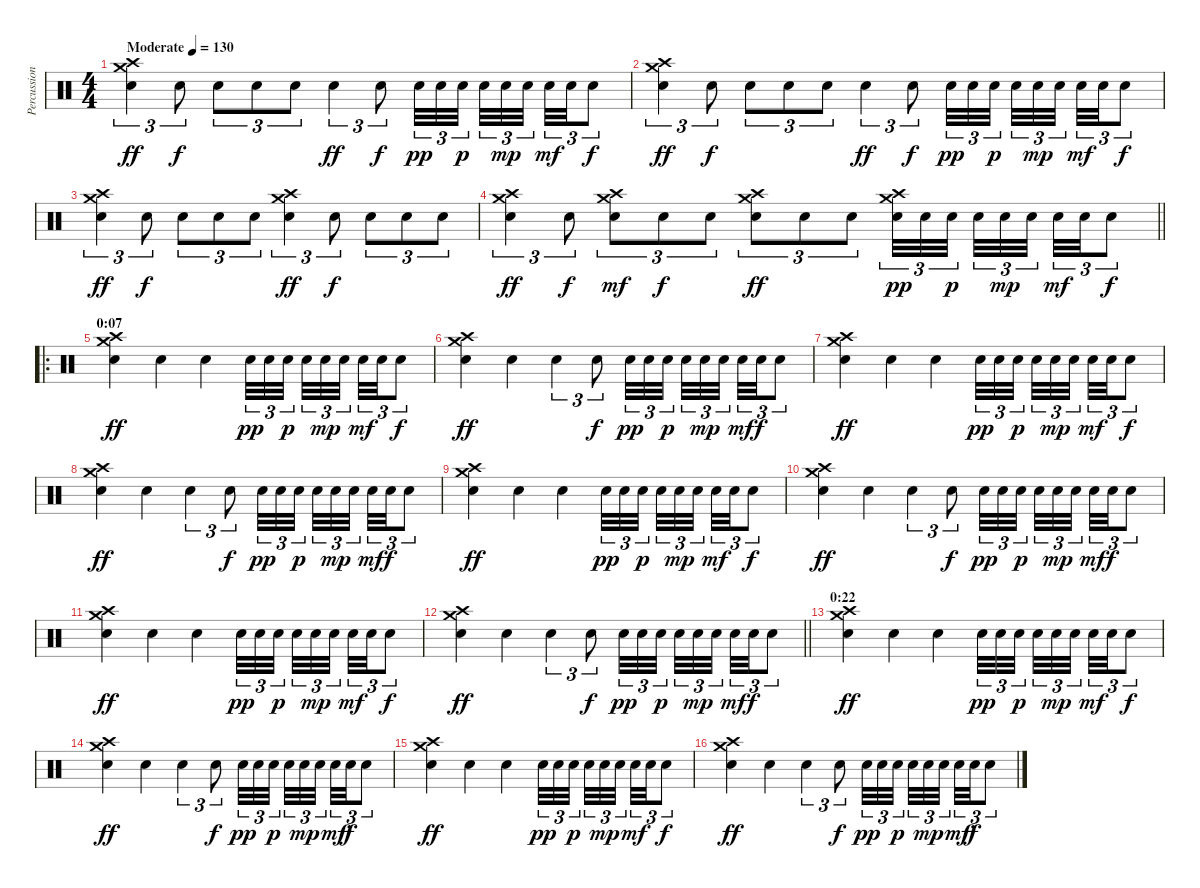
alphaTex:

\track ("Percussion" "Percussion") {instrument percussion}
\staff {score}
\articulation defaults
\ts (4 4)
\tempo (130 "Moderate")
\clef neutral
\ks c
("Crash medium (hit)" "Crash high (hit)" "Electric Snare (hit)").4{tu (3 2) dy ff} "Electric Snare (hit)".8{tu (3 2) dy f} "Electric Snare (hit)".8{tu (3 2)} "Electric Snare (hit)".8{tu (3 2)} "Electric Snare (hit)".8{tu (3 2)} "Electric Snare (hit)".4{tu (3 2) dy ff} "Electric Snare (hit)".8{tu (3 2) dy f} "Electric Snare (hit)".32{tu (3 2) dy pp} "Electric Snare (hit)".32{tu (3 2)} "Electric Snare (hit)".32{tu (3 2) dy p beam splitsecondary} "Electric Snare (hit)".32{tu (3 2)} "Electric Snare (hit)".32{tu (3 2) dy mp} "Electric Snare (hit)".32{tu (3 2) beam splitsecondary} "Electric Snare (hit)".32{tu (3 2) dy mf} "Electric Snare (hit)".32{tu (3 2)} "Electric Snare (hit)".8{tu (3 2) dy f} |
("Crash medium (hit)" "Crash high (hit)" "Electric Snare (hit)").4{tu (3 2) dy ff} "Electric Snare (hit)".8{tu (3 2) dy f} "Electric Snare (hit)".8{tu (3 2)} "Electric Snare (hit)".8{tu (3 2)} "Electric Snare (hit)".8{tu (3 2)} "Electric Snare (hit)".4{tu (3 2) dy ff} "Electric Snare (hit)".8{tu (3 2) dy f} "Electric Snare (hit)".32{tu (3 2) dy pp} "Electric Snare (hit)".32{tu (3 2)} "Electric Snare (hit)".32{tu (3 2) dy p beam splitsecondary} "Electric Snare (hit)".32{tu (3 2)} "Electric Snare (hit)".32{tu (3 2) dy mp} "Electric Snare (hit)".32{tu (3 2) beam splitsecondary} "Electric Snare (hit)".32{tu (3 2) dy mf} "Electric Snare (hit)".32{tu (3 2)} "Electric Snare (hit)".8{tu (3 2) dy f} |
("Crash medium (hit)" "Crash high (hit)" "Electric Snare (hit)").4{tu (3 2) dy ff} "Electric Snare (hit)".8{tu (3 2) dy f} "Electric Snare (hit)".8{tu (3 2)} "Electric Snare (hit)".8{tu (3 2)} "Electric Snare (hit)".8{tu (3 2)} ("Crash medium (hit)" "Crash high (hit)" "Electric Snare (hit)").4{tu (3 2) dy ff} "Electric Snare (hit)".8{tu (3 2) dy f} "Electric Snare (hit)".8{tu (3 2)} "Electric Snare (hit)".8{tu (3 2)} "Electric Snare (hit)".8{tu (3 2)} |
\barLineRight lightlight
("Crash medium (hit)" "Crash high (hit)" "Electric Snare (hit)").4{tu (3 2) dy ff} "Electric Snare (hit)".8{tu (3 2) dy f} ("Crash medium (hit)" "Crash high (hit)" "Electric Snare (hit)").8{tu (3 2) dy mf} "Electric Snare (hit)".8{tu (3 2) dy f} "Electric Snare (hit)".8{tu (3 2)} ("Crash medium (hit)" "Crash high (hit)" "Electric Snare (hit)").8{tu (3 2) dy ff} "Electric Snare (hit)".8{tu (3 2)} "Electric Snare (hit)".8{tu (3 2)} ("Crash medium (hit)" "Crash high (hit)" "Electric Snare (hit)").32{tu (3 2) dy pp} "Electric Snare (hit)".32{tu (3 2)} "Electric Snare (hit)".32{tu (3 2) dy p beam splitsecondary} "Electric Snare (hit)".32{tu (3 2)} "Electric Snare (hit)".32{tu (3 2) dy mp} "Electric Snare (hit)".32{tu (3 2) beam splitsecondary} "Electric Snare (hit)".32{tu (3 2) dy mf} "Electric Snare (hit)".32{tu (3 2)} "Electric Snare (hit)".8{tu (3 2) dy f} |
\ro
\section ("" "0:07")
("Crash medium (hit)" "Crash high (hit)" "Electric Snare (hit)").4{dy ff} "Electric Snare (hit)".4 "Electric Snare (hit)".4 "Electric Snare (hit)".32{tu (3 2) dy pp} "Electric Snare (hit)".32{tu (3 2)} "Electric Snare (hit)".32{tu (3 2) dy p beam splitsecondary} "Electric Snare (hit)".32{tu (3 2)} "Electric Snare (hit)".32{tu (3 2) dy mp} "Electric Snare (hit)".32{tu (3 2) beam splitsecondary} "Electric Snare (hit)".32{tu (3 2) dy mf} "Electric Snare (hit)".32{tu (3 2)} "Electric Snare (hit)".8{tu (3 2) dy f} |
("Crash medium (hit)" "Crash high (hit)" "Electric Snare (hit)").4{dy ff} "Electric Snare (hit)".4 "Electric Snare (hit)".4{tu (3 2)} "Electric Snare (hit)".8{tu (3 2) dy f} "Electric Snare (hit)".32{tu (3 2) dy pp} "Electric Snare (hit)".32{tu (3 2)} "Electric Snare (hit)".32{tu (3 2) dy p beam splitsecondary} "Electric Snare (hit)".32{tu (3 2)} "Electric Snare (hit)".32{tu (3 2) dy mp} "Electric Snare (hit)".32{tu (3 2) beam splitsecondary} "Electric Snare (hit)".32{tu (3 2) dy mf} "Electric Snare (hit)".32{tu (3 2) dy f} "Electric Snare (hit)".8{tu (3 2)} |
("Crash medium (hit)" "Crash high (hit)" "Electric Snare (hit)").4{dy ff} "Electric Snare (hit)".4 "Electric Snare (hit)".4 "Electric Snare (hit)".32{tu (3 2) dy pp} "Electric Snare (hit)".32{tu (3 2)} "Electric Snare (hit)".32{tu (3 2) dy p beam splitsecondary} "Electric Snare (hit)".32{tu (3 2)} "Electric Snare (hit)".32{tu (3 2) dy mp} "Electric Snare (hit)".32{tu (3 2) beam splitsecondary} "Electric Snare (hit)".32{tu (3 2) dy mf} "Electric Snare (hit)".32{tu (3 2)} "Electric Snare (hit)".8{tu (3 2) dy f} |
("Crash medium (hit)" "Crash high (hit)" "Electric Snare (hit)").4{dy ff} "Electric Snare (hit)".4 "Electric Snare (hit)".4{tu (3 2)} "Electric Snare (hit)".8{tu (3 2) dy f} "Electric Snare (hit)".32{tu (3 2) dy pp} "Electric Snare (hit)".32{tu (3 2)} "Electric Snare (hit)".32{tu (3 2) dy p beam splitsecondary} "Electric Snare (hit)".32{tu (3 2)} "Electric Snare (hit)".32{tu (3 2) dy mp} "Electric Snare (hit)".32{tu (3 2) beam splitsecondary} "Electric Snare (hit)".32{tu (3 2) dy mf} "Electric Snare (hit)".32{tu (3 2) dy f} "Electric Snare (hit)".8{tu (3 2)} |
("Crash medium (hit)" "Crash high (hit)" "Electric Snare (hit)").4{dy ff} "Electric Snare (hit)".4 "Electric Snare (hit)".4 "Electric Snare (hit)".32{tu (3 2) dy pp} "Electric Snare (hit)".32{tu (3 2)} "Electric Snare (hit)".32{tu (3 2) dy p beam splitsecondary} "Electric Snare (hit)".32{tu (3 2)} "Electric Snare (hit)".32{tu (3 2) dy mp} "Electric Snare (hit)".32{tu (3 2) beam splitsecondary} "Electric Snare (hit)".32{tu (3 2) dy mf} "Electric Snare (hit)".32{tu (3 2)} "Electric Snare (hit)".8{tu (3 2) dy f} |
("Crash medium (hit)" "Crash high (hit)" "Electric Snare (hit)").4{dy ff} "Electric Snare (hit)".4 "Electric Snare (hit)".4{tu (3 2)} "Electric Snare (hit)".8{tu (3 2) dy f} "Electric Snare (hit)".32{tu (3 2) dy pp} "Electric Snare (hit)".32{tu (3 2)} "Electric Snare (hit)".32{tu (3 2) dy p beam splitsecondary} "Electric Snare (hit)".32{tu (3 2)} "Electric Snare (hit)".32{tu (3 2) dy mp} "Electric Snare (hit)".32{tu (3 2) beam splitsecondary} "Electric Snare (hit)".32{tu (3 2) dy mf} "Electric Snare (hit)".32{tu (3 2) dy f} "Electric Snare (hit)".8{tu (3 2)} |
("Crash medium (hit)" "Crash high (hit)" "Electric Snare (hit)").4{dy ff} "Electric Snare (hit)".4 "Electric Snare (hit)".4 "Electric Snare (hit)".32{tu (3 2) dy pp} "Electric Snare (hit)".32{tu (3 2)} "Electric Snare (hit)".32{tu (3 2) dy p beam splitsecondary} "Electric Snare (hit)".32{tu (3 2)} "Electric Snare (hit)".32{tu (3 2) dy mp} "Electric Snare (hit)".32{tu (3 2) beam splitsecondary} "Electric Snare (hit)".32{tu (3 2) dy mf} "Electric Snare (hit)".32{tu (3 2)} "Electric Snare (hit)".8{tu (3 2) dy f} |
\barLineRight lightlight
("Crash medium (hit)" "Crash high (hit)" "Electric Snare (hit)").4{dy ff} "Electric Snare (hit)".4 "Electric Snare (hit)".4{tu (3 2)} "Electric Snare (hit)".8{tu (3 2) dy f} "Electric Snare (hit)".32{tu (3 2) dy pp} "Electric Snare (hit)".32{tu (3 2)} "Electric Snare (hit)".32{tu (3 2) dy p beam splitsecondary} "Electric Snare (hit)".32{tu (3 2)} "Electric Snare (hit)".32{tu (3 2) dy mp} "Electric Snare (hit)".32{tu (3 2) beam splitsecondary} "Electric Snare (hit)".32{tu (3 2) dy mf} "Electric Snare (hit)".32{tu (3 2) dy f} "Electric Snare (hit)".8{tu (3 2)} |
\section ("" "0:22")
("Crash medium (hit)" "Crash high (hit)" "Electric Snare (hit)").4{dy ff} "Electric Snare (hit)".4 "Electric Snare (hit)".4 "Electric Snare (hit)".32{tu (3 2) dy pp} "Electric Snare (hit)".32{tu (3 2)} "Electric Snare (hit)".32{tu (3 2) dy p beam splitsecondary} "Electric Snare (hit)".32{tu (3 2)} "Electric Snare (hit)".32{tu (3 2) dy mp} "Electric Snare (hit)".32{tu (3 2) beam splitsecondary} "Electric Snare (hit)".32{tu (3 2) dy mf} "Electric Snare (hit)".32{tu (3 2)} "Electric Snare (hit)".8{tu (3 2) dy f} |
("Crash medium (hit)" "Crash high (hit)" "Electric Snare (hit)").4{dy ff} "Electric Snare (hit)".4 "Electric Snare (hit)".4{tu (3 2)} "Electric Snare (hit)".8{tu (3 2) dy f} "Electric Snare (hit)".32{tu (3 2) dy pp} "Electric Snare (hit)".32{tu (3 2)} "Electric Snare (hit)".32{tu (3 2) dy p beam splitsecondary} "Electric Snare (hit)".32{tu (3 2)} "Electric Snare (hit)".32{tu (3 2) dy mp} "Electric Snare (hit)".32{tu (3 2) beam splitsecondary} "Electric Snare (hit)".32{tu (3 2) dy mf} "Electric Snare (hit)".32{tu (3 2) dy f} "Electric Snare (hit)".8{tu (3 2)} |
("Crash medium (hit)" "Crash high (hit)" "Electric Snare (hit)").4{dy ff} "Electric Snare (hit)".4 "Electric Snare (hit)".4 "Electric Snare (hit)".32{tu (3 2) dy pp} "Electric Snare (hit)".32{tu (3 2)} "Electric Snare (hit)".32{tu (3 2) dy p beam splitsecondary} "Electric Snare (hit)".32{tu (3 2)} "Electric Snare (hit)".32{tu (3 2) dy mp} "Electric Snare (hit)".32{tu (3 2) beam splitsecondary} "Electric Snare (hit)".32{tu (3 2) dy mf} "Electric Snare (hit)".32{tu (3 2)} "Electric Snare (hit)".8{tu (3 2) dy f} |
("Crash medium (hit)" "Crash high (hit)" "Electric Snare (hit)").4{dy ff} "Electric Snare (hit)".4 "Electric Snare (hit)".4{tu (3 2)} "Electric Snare (hit)".8{tu (3 2) dy f} "Electric Snare (hit)".32{tu (3 2) dy pp} "Electric Snare (hit)".32{tu (3 2)} "Electric Snare (hit)".32{tu (3 2) dy p beam splitsecondary} "Electric Snare (hit)".32{tu (3 2)} "Electric Snare (hit)".32{tu (3 2) dy mp} "Electric Snare (hit)".32{tu (3 2) beam splitsecondary} "Electric Snare (hit)".32{tu (3 2) dy mf} "Electric Snare (hit)".32{tu (3 2) dy f} "Electric Snare (hit)".8{tu (3 2)}
